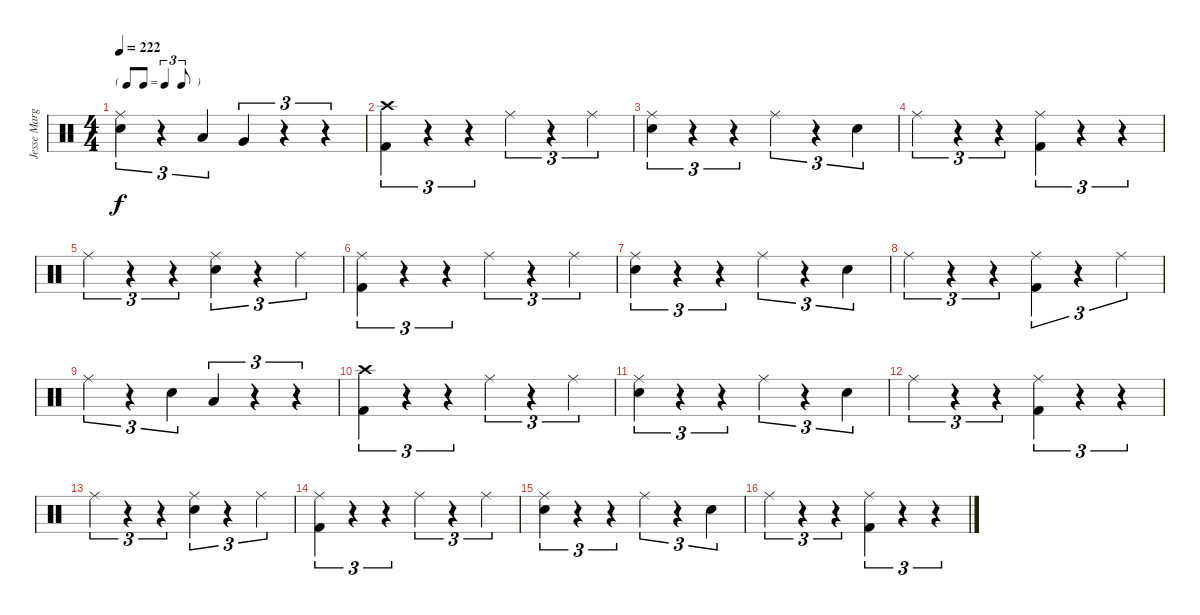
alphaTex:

\track ("Jesse Margera" "Jesse Marg") {instrument percussion}
\staff {score}
\articulation defaults
\ts (4 4)
\tf triplet8th
\tempo 222
\clef neutral
\ks c
("Ride (middle)" "Electric Snare (hit)").4{tu (3 2) dy f} r.4{tu (3 2)} "Low Floor Tom (hit)".4{tu (3 2)} "Very Low Tom (hit)".4{tu (3 2)} r.4{tu (3 2)} r.4{tu (3 2)} |
("Crash high (hit)" "Kick (hit) 2").4{tu (3 2)} r.4{tu (3 2)} r.4{tu (3 2)} "Ride (middle)".4{tu (3 2)} r.4{tu (3 2)} "Ride (middle)".4{tu (3 2)} |
("Ride (middle)" "Electric Snare (hit)").4{tu (3 2)} r.4{tu (3 2)} r.4{tu (3 2)} "Ride (middle)".4{tu (3 2)} r.4{tu (3 2)} "Electric Snare (hit)".4{tu (3 2)} |
"Ride (middle)".4{tu (3 2)} r.4{tu (3 2)} r.4{tu (3 2)} ("Ride (middle)" "Kick (hit) 2").4{tu (3 2)} r.4{tu (3 2)} r.4{tu (3 2)} |
"Ride (middle)".4{tu (3 2)} r.4{tu (3 2)} r.4{tu (3 2)} ("Ride (middle)" "Electric Snare (hit)").4{tu (3 2)} r.4{tu (3 2)} "Ride (middle)".4{tu (3 2)} |
("Ride (middle)" "Kick (hit) 2").4{tu (3 2)} r.4{tu (3 2)} r.4{tu (3 2)} "Ride (middle)".4{tu (3 2)} r.4{tu (3 2)} "Ride (middle)".4{tu (3 2)} |
("Ride (middle)" "Electric Snare (hit)").4{tu (3 2)} r.4{tu (3 2)} r.4{tu (3 2)} "Ride (middle)".4{tu (3 2)} r.4{tu (3 2)} "Electric Snare (hit)".4{tu (3 2)} |
"Ride (middle)".4{tu (3 2)} r.4{tu (3 2)} r.4{tu (3 2)} ("Ride (middle)" "Kick (hit) 2").4{tu (3 2)} r.4{tu (3 2)} "Ride (middle)".4{tu (3 2)} |
"Ride (middle)".4{tu (3 2)} r.4{tu (3 2)} "Electric Snare (hit)".4{tu (3 2)} "Low Floor Tom (hit)".4{tu (3 2)} r.4{tu (3 2)} r.4{tu (3 2)} |
("Crash high (hit)" "Kick (hit) 2").4{tu (3 2)} r.4{tu (3 2)} r.4{tu (3 2)} "Ride (middle)".4{tu (3 2)} r.4{tu (3 2)} "Ride (middle)".4{tu (3 2)} |
("Ride (middle)" "Electric Snare (hit)").4{tu (3 2)} r.4{tu (3 2)} r.4{tu (3 2)} "Ride (middle)".4{tu (3 2)} r.4{tu (3 2)} "Electric Snare (hit)".4{tu (3 2)} |
"Ride (middle)".4{tu (3 2)} r.4{tu (3 2)} r.4{tu (3 2)} ("Ride (middle)" "Kick (hit) 2").4{tu (3 2)} r.4{tu (3 2)} r.4{tu (3 2)} |
"Ride (middle)".4{tu (3 2)} r.4{tu (3 2)} r.4{tu (3 2)} ("Ride (middle)" "Electric Snare (hit)").4{tu (3 2)} r.4{tu (3 2)} "Ride (middle)".4{tu (3 2)} |
("Ride (middle)" "Kick (hit) 2").4{tu (3 2)} r.4{tu (3 2)} r.4{tu (3 2)} "Ride (middle)".4{tu (3 2)} r.4{tu (3 2)} "Ride (middle)".4{tu (3 2)} |
("Ride (middle)" "Electric Snare (hit)").4{tu (3 2)} r.4{tu (3 2)} r.4{tu (3 2)} "Ride (middle)".4{tu (3 2)} r.4{tu (3 2)} "Electric Snare (hit)".4{tu (3 2)} |
"Ride (middle)".4{tu (3 2)} r.4{tu (3 2)} r.4{tu (3 2)} ("Ride (middle)" "Kick (hit) 2").4{tu (3 2)} r.4{tu (3 2)} r.4{tu (3 2)}
